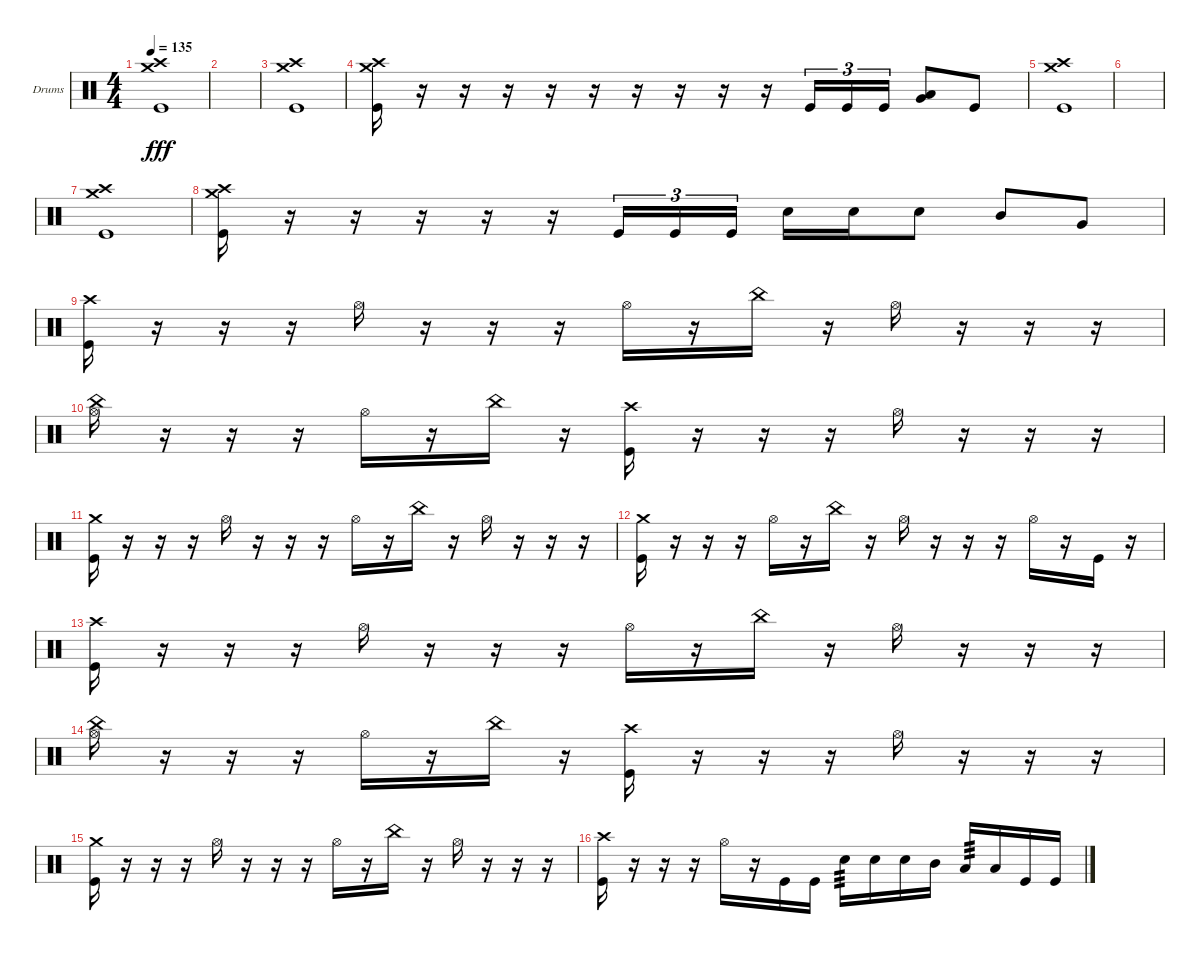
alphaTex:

\bracketExtendMode groupsimilarinstruments
\firstSystemTrackNameOrientation horizontal
\otherSystemsTrackNameOrientation horizontal
\track ("Drumkit" "Drums") {instrument percussion}
\staff {score}
\articulation defaults
\ts (4 4)
\tempo 135
\clef neutral
\ks c
("Kick (hit)" "Crash medium (hit)" "Crash high (hit)").1{dy fff} |
|
("Kick (hit)" "Crash medium (hit)" "Crash high (hit)").1 |
("Kick (hit)" "Crash high (hit)" "Crash medium (hit)").16 r.16 r.16 r.16 r.16 r.16 r.16 r.16 r.16 r.16 "Kick (hit)".16{tu (3 2)} "Kick (hit)".16{tu (3 2)} "Kick (hit)".16{tu (3 2)} ("Very Low Tom (hit)" "Low Tom (hit)").8 "Kick (hit)".8 |
("Kick (hit)" "Crash medium (hit)" "Crash high (hit)").1 |
|
("Kick (hit)" "Crash medium (hit)" "Crash high (hit)").1 |
("Kick (hit)" "Crash high (hit)" "Crash medium (hit)").16 r.16 r.16 r.16 r.16 r.16 "Kick (hit)".16{tu (3 2)} "Kick (hit)".16{tu (3 2)} "Kick (hit)".16{tu (3 2)} "Snare (hit) 2".16 "Snare (hit) 2".16 "Snare (hit) 2".8 "Mid Tom (hit)".8 "Very Low Tom (hit)".8 |
("Kick (hit)" "Crash high (hit)").16 r.16 r.16 r.16 "Hi-Hat (open)".16 r.16 r.16 r.16 "Hi-Hat (open)".16 r.16 "China (hit)".16 r.16 "Hi-Hat (open)".16 r.16 r.16 r.16 |
("Hi-Hat (open)" "China (hit)").16 r.16 r.16 r.16 "Hi-Hat (open)".16 r.16 "China (hit)".16 r.16 ("Kick (hit)" "Crash high (hit)").16 r.16 r.16 r.16 "Hi-Hat (open)".16 r.16 r.16 r.16 |
("Crash medium (hit)" "Kick (hit)").16 r.16 r.16 r.16 "Hi-Hat (open)".16 r.16 r.16 r.16 "Hi-Hat (open)".16 r.16 "China (hit)".16 r.16 "Hi-Hat (open)".16 r.16 r.16 r.16 |
("Crash medium (hit)" "Kick (hit)").16 r.16 r.16 r.16 "Hi-Hat (open)".16 r.16 "China (hit)".16 r.16 "Hi-Hat (open)".16 r.16 r.16 r.16 "Hi-Hat (open)".16 r.16 "Kick (hit)".16 r.16 |
("Kick (hit)" "Crash high (hit)").16 r.16 r.16 r.16 "Hi-Hat (open)".16 r.16 r.16 r.16 "Hi-Hat (open)".16 r.16 "China (hit)".16 r.16 "Hi-Hat (open)".16 r.16 r.16 r.16 |
("Hi-Hat (open)" "China (hit)").16 r.16 r.16 r.16 "Hi-Hat (open)".16 r.16 "China (hit)".16 r.16 ("Kick (hit)" "Crash high (hit)").16 r.16 r.16 r.16 "Hi-Hat (open)".16 r.16 r.16 r.16 |
("Crash medium (hit)" "Kick (hit)").16 r.16 r.16 r.16 "Hi-Hat (open)".16 r.16 r.16 r.16 "Hi-Hat (open)".16 r.16 "China (hit)".16 r.16 "Hi-Hat (open)".16 r.16 r.16 r.16 |
("Crash high (hit)" "Kick (hit)").16 r.16 r.16 r.16 "Hi-Hat (open)".16 r.16 "Kick (hit)".16 "Kick (hit)".16 "Snare (hit) 2".16{tp 3} "Snare (hit) 2".16 "Snare (hit) 2".16 "Mid Tom (hit)".16 "Low Tom (hit)".16{tp 3} "Low Tom (hit)".16 "Kick (hit)".16 "Kick (hit)".16
